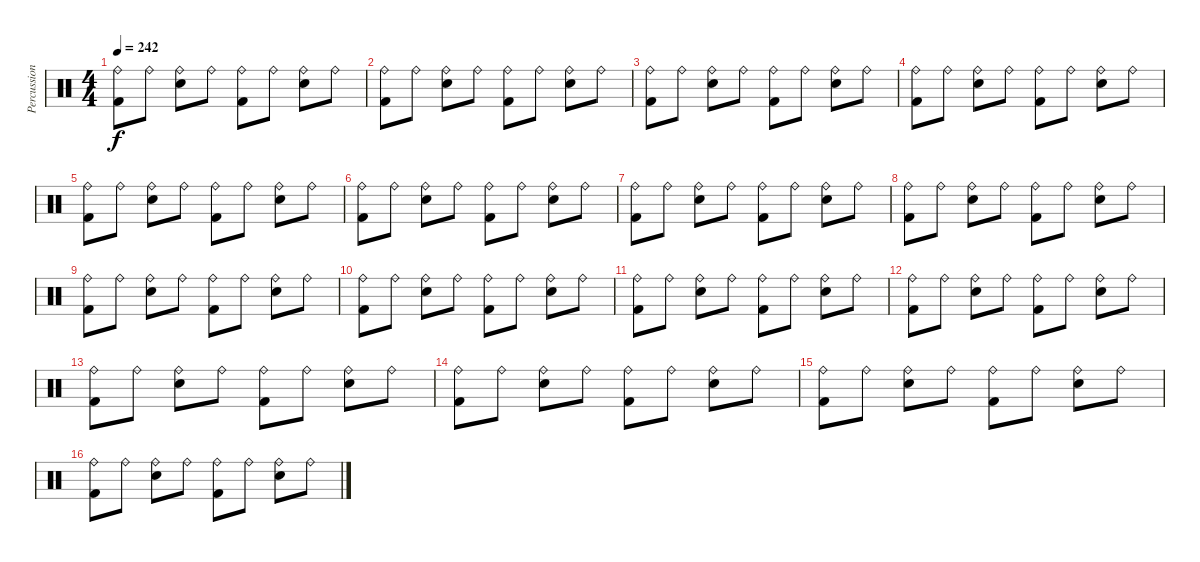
\track ("Percussions" "Percussion") {instrument percussion}
\staff {score}
\articulation defaults
\ts (4 4)
\tempo 242
\clef neutral
\ks c
("Ride (bell)" "Kick (hit) 2").8{dy f} "Ride (bell)".8 ("Ride (bell)" "Electric Snare (hit)").8 "Ride (bell)".8 ("Ride (bell)" "Kick (hit) 2").8 "Ride (bell)".8 ("Ride (bell)" "Electric Snare (hit)").8 "Ride (bell)".8 |
("Ride (bell)" "Kick (hit) 2").8 "Ride (bell)".8 ("Ride (bell)" "Electric Snare (hit)").8 "Ride (bell)".8 ("Ride (bell)" "Kick (hit) 2").8 "Ride (bell)".8 ("Ride (bell)" "Electric Snare (hit)").8 "Ride (bell)".8 |
("Ride (bell)" "Kick (hit) 2").8 "Ride (bell)".8 ("Ride (bell)" "Electric Snare (hit)").8 "Ride (bell)".8 ("Ride (bell)" "Kick (hit) 2").8 "Ride (bell)".8 ("Ride (bell)" "Electric Snare (hit)").8 "Ride (bell)".8 |
("Ride (bell)" "Kick (hit) 2").8 "Ride (bell)".8 ("Ride (bell)" "Electric Snare (hit)").8 "Ride (bell)".8 ("Ride (bell)" "Kick (hit) 2").8 "Ride (bell)".8 ("Ride (bell)" "Electric Snare (hit)").8 "Ride (bell)".8 |
("Ride (bell)" "Kick (hit) 2").8 "Ride (bell)".8 ("Ride (bell)" "Electric Snare (hit)").8 "Ride (bell)".8 ("Ride (bell)" "Kick (hit) 2").8 "Ride (bell)".8 ("Ride (bell)" "Electric Snare (hit)").8 "Ride (bell)".8 |
("Ride (bell)" "Kick (hit) 2").8 "Ride (bell)".8 ("Ride (bell)" "Electric Snare (hit)").8 "Ride (bell)".8 ("Ride (bell)" "Kick (hit) 2").8 "Ride (bell)".8 ("Ride (bell)" "Electric Snare (hit)").8 "Ride (bell)".8 |
("Ride (bell)" "Kick (hit) 2").8 "Ride (bell)".8 ("Ride (bell)" "Electric Snare (hit)").8 "Ride (bell)".8 ("Ride (bell)" "Kick (hit) 2").8 "Ride (bell)".8 ("Ride (bell)" "Electric Snare (hit)").8 "Ride (bell)".8 |
("Ride (bell)" "Kick (hit) 2").8 "Ride (bell)".8 ("Ride (bell)" "Electric Snare (hit)").8 "Ride (bell)".8 ("Ride (bell)" "Kick (hit) 2").8 "Ride (bell)".8 ("Ride (bell)" "Electric Snare (hit)").8 "Ride (bell)".8 |
("Ride (bell)" "Kick (hit) 2").8 "Ride (bell)".8 ("Ride (bell)" "Electric Snare (hit)").8 "Ride (bell)".8 ("Ride (bell)" "Kick (hit) 2").8 "Ride (bell)".8 ("Ride (bell)" "Electric Snare (hit)").8 "Ride (bell)".8 |
("Ride (bell)" "Kick (hit) 2").8 "Ride (bell)".8 ("Ride (bell)" "Electric Snare (hit)").8 "Ride (bell)".8 ("Ride (bell)" "Kick (hit) 2").8 "Ride (bell)".8 ("Ride (bell)" "Electric Snare (hit)").8 "Ride (bell)".8 |
("Ride (bell)" "Kick (hit) 2").8 "Ride (bell)".8 ("Ride (bell)" "Electric Snare (hit)").8 "Ride (bell)".8 ("Ride (bell)" "Kick (hit) 2").8 "Ride (bell)".8 ("Ride (bell)" "Electric Snare (hit)").8 "Ride (bell)".8 |
("Ride (bell)" "Kick (hit) 2").8 "Ride (bell)".8 ("Ride (bell)" "Electric Snare (hit)").8 "Ride (bell)".8 ("Ride (bell)" "Kick (hit) 2").8 "Ride (bell)".8 ("Ride (bell)" "Electric Snare (hit)").8 "Ride (bell)".8 |
("Ride (bell)" "Kick (hit) 2").8 "Ride (bell)".8 ("Ride (bell)" "Electric Snare (hit)").8 "Ride (bell)".8 ("Ride (bell)" "Kick (hit) 2").8 "Ride (bell)".8 ("Ride (bell)" "Electric Snare (hit)").8 "Ride (bell)".8 |
("Ride (bell)" "Kick (hit) 2").8 "Ride (bell)".8 ("Ride (bell)" "Electric Snare (hit)").8 "Ride (bell)".8 ("Ride (bell)" "Kick (hit) 2").8 "Ride (bell)".8 ("Ride (bell)" "Electric Snare (hit)").8 "Ride (bell)".8 |
("Ride (bell)" "Kick (hit) 2").8 "Ride (bell)".8 ("Ride (bell)" "Electric Snare (hit)").8 "Ride (bell)".8 ("Ride (bell)" "Kick (hit) 2").8 "Ride (bell)".8 ("Ride (bell)" "Electric Snare (hit)").8 "Ride (bell)".8 |
("Ride (bell)" "Kick (hit) 2").8 "Ride (bell)".8 ("Ride (bell)" "Electric Snare (hit)").8 "Ride (bell)".8 ("Ride (bell)" "Kick (hit) 2").8 "Ride (bell)".8 ("Ride (bell)" "Electric Snare (hit)").8 "Ride (bell)".8
